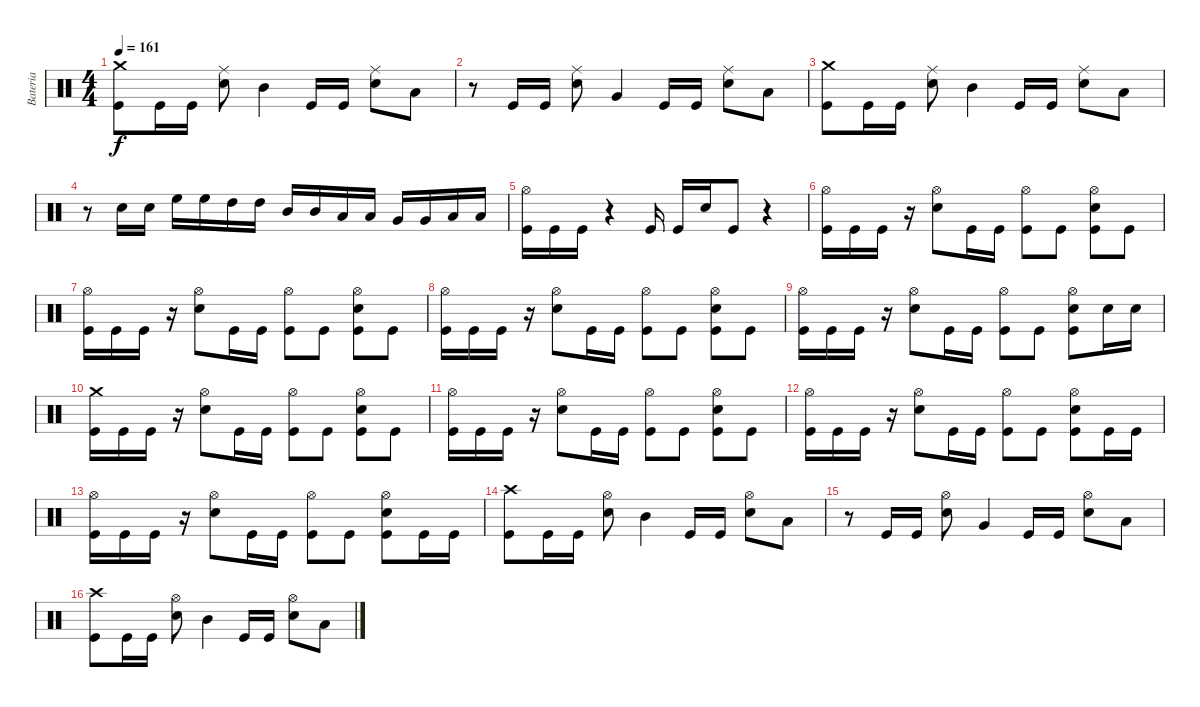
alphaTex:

\track ("Bateria" "Bateria") {instrument percussion}
\staff {score}
\articulation defaults
\ts (4 4)
\tempo 161
\clef neutral
\ks c
("Kick (hit)" "Crash medium (hit)").8{dy f} "Kick (hit)".16 "Kick (hit)".16 ("Electric Snare (hit)" "Ride (middle)").8 "Mid Tom (hit)".4 "Kick (hit)".16 "Kick (hit)".16 ("Electric Snare (hit)" "Ride (middle)").8 "Low Tom (hit)".8 |
r.8 "Kick (hit)".16 "Kick (hit)".16 ("Electric Snare (hit)" "Ride (middle)").8 "Very Low Tom (hit)".4 "Kick (hit)".16 "Kick (hit)".16 ("Electric Snare (hit)" "Ride (middle)").8 "Low Floor Tom (hit)".8 |
("Kick (hit)" "Crash medium (hit)").8 "Kick (hit)".16 "Kick (hit)".16 ("Electric Snare (hit)" "Ride (middle)").8 "Mid Tom (hit)".4 "Kick (hit)".16 "Kick (hit)".16 ("Electric Snare (hit)" "Ride (middle)").8 "Low Tom (hit)".8 |
r.8 "Electric Snare (hit)".16 "Electric Snare (hit)".16 "High Floor Tom (hit)".16 "High Floor Tom (hit)".16 "High Tom (hit)".16 "High Tom (hit)".16 "Mid Tom (hit)".16 "Mid Tom (hit)".16 "Low Tom (hit)".16 "Low Tom (hit)".16 "Very Low Tom (hit)".16 "Very Low Tom (hit)".16 "Low Floor Tom (hit)".16 "Low Floor Tom (hit)".16 |
("Hi-Hat (open)" "Kick (hit)").16 "Kick (hit)".16 "Kick (hit)".16 r.4 "Kick (hit)".16 "Kick (hit)".16 "Electric Snare (hit)".16 "Kick (hit)".8 r.4 |
("Hi-Hat (open)" "Kick (hit)").16 "Kick (hit)".16 "Kick (hit)".16 r.16 ("Hi-Hat (open)" "Electric Snare (hit)").8 "Kick (hit)".16 "Kick (hit)".16 ("Hi-Hat (open)" "Kick (hit)").8 "Kick (hit)".8 ("Hi-Hat (open)" "Kick (hit)" "Electric Snare (hit)").8 "Kick (hit)".8 |
("Hi-Hat (open)" "Kick (hit)").16 "Kick (hit)".16 "Kick (hit)".16 r.16 ("Hi-Hat (open)" "Electric Snare (hit)").8 "Kick (hit)".16 "Kick (hit)".16 ("Hi-Hat (open)" "Kick (hit)").8 "Kick (hit)".8 ("Hi-Hat (open)" "Kick (hit)" "Electric Snare (hit)").8 "Kick (hit)".8 |
("Hi-Hat (open)" "Kick (hit)").16 "Kick (hit)".16 "Kick (hit)".16 r.16 ("Hi-Hat (open)" "Electric Snare (hit)").8 "Kick (hit)".16 "Kick (hit)".16 ("Hi-Hat (open)" "Kick (hit)").8 "Kick (hit)".8 ("Hi-Hat (open)" "Kick (hit)" "Electric Snare (hit)").8 "Kick (hit)".8 |
("Hi-Hat (open)" "Kick (hit)").16 "Kick (hit)".16 "Kick (hit)".16 r.16 ("Hi-Hat (open)" "Electric Snare (hit)").8 "Kick (hit)".16 "Kick (hit)".16 ("Hi-Hat (open)" "Kick (hit)").8 "Kick (hit)".8 ("Hi-Hat (open)" "Kick (hit)" "Electric Snare (hit)").8 "Snare (hit) 2".16 "Snare (hit) 2".16 |
("Crash medium (hit)" "Kick (hit)").16 "Kick (hit)".16 "Kick (hit)".16 r.16 ("Hi-Hat (open)" "Electric Snare (hit)").8 "Kick (hit)".16 "Kick (hit)".16 ("Hi-Hat (open)" "Kick (hit)").8 "Kick (hit)".8 ("Hi-Hat (open)" "Kick (hit)" "Electric Snare (hit)").8 "Kick (hit)".8 |
("Hi-Hat (open)" "Kick (hit)").16 "Kick (hit)".16 "Kick (hit)".16 r.16 ("Hi-Hat (open)" "Electric Snare (hit)").8 "Kick (hit)".16 "Kick (hit)".16 ("Hi-Hat (open)" "Kick (hit)").8 "Kick (hit)".8 ("Hi-Hat (open)" "Kick (hit)" "Electric Snare (hit)").8 "Kick (hit)".8 |
("Hi-Hat (open)" "Kick (hit)").16 "Kick (hit)".16 "Kick (hit)".16 r.16 ("Hi-Hat (open)" "Electric Snare (hit)").8 "Kick (hit)".16 "Kick (hit)".16 ("Hi-Hat (open)" "Kick (hit)").8 "Kick (hit)".8 ("Hi-Hat (open)" "Kick (hit)" "Electric Snare (hit)").8 "Kick (hit)".16 "Kick (hit)".16 |
("Hi-Hat (open)" "Kick (hit)").16 "Kick (hit)".16 "Kick (hit)".16 r.16 ("Hi-Hat (open)" "Electric Snare (hit)").8 "Kick (hit)".16 "Kick (hit)".16 ("Hi-Hat (open)" "Kick (hit)").8 "Kick (hit)".8 ("Hi-Hat (open)" "Kick (hit)" "Electric Snare (hit)").8 "Kick (hit)".16 "Kick (hit)".16 |
("Kick (hit)" "Crash high (hit)").8 "Kick (hit)".16 "Kick (hit)".16 ("Hi-Hat (open)" "Electric Snare (hit)").8 "Mid Tom (hit)".4 "Kick (hit)".16 "Kick (hit)".16 ("Hi-Hat (open)" "Electric Snare (hit)").8 "Low Tom (hit)".8 |
r.8 "Kick (hit)".16 "Kick (hit)".16 ("Hi-Hat (open)" "Electric Snare (hit)").8 "Very Low Tom (hit)".4 "Kick (hit)".16 "Kick (hit)".16 ("Hi-Hat (open)" "Electric Snare (hit)").8 "Low Floor Tom (hit)".8 |
("Kick (hit)" "Crash high (hit)").8 "Kick (hit)".16 "Kick (hit)".16 ("Hi-Hat (open)" "Electric Snare (hit)").8 "Mid Tom (hit)".4 "Kick (hit)".16 "Kick (hit)".16 ("Hi-Hat (open)" "Electric Snare (hit)").8 "Low Tom (hit)".8
